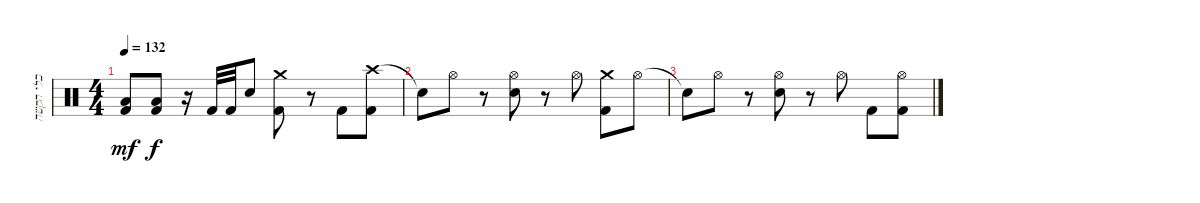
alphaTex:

\track ("כלי הקשה" "כלי הקשה") {instrument percussion}
\staff {score}
\articulation defaults
\ts (4 4)
\tempo 132
\clef neutral
\ks c
("Low Floor Tom (hit)" "Kick (hit) 2").8{dy mf volume 4} ("Low Floor Tom (hit)" "Kick (hit) 2").8{dy f} r.16 "Kick (hit) 2".32 "Kick (hit) 2".32 "Electric Snare (hit)".8 ("Crash medium (hit)" "Kick (hit) 2").8 r.8 "Kick (hit) 2".8 ("Crash high (hit)" "Kick (hit) 2").8 |
"Snare (hit)"{t}.8{volume 2} "Hi-Hat (open)".8 r.8 ("Hi-Hat (open)" "Electric Snare (hit)").8 r.8 "Hi-Hat (open)".8 ("Crash medium (hit)" "Kick (hit) 2").8 "Hi-Hat (open)".8 |
"Snare (hit)"{t}.8{volume 1} "Hi-Hat (open)".8 r.8 ("Hi-Hat (open)" "Electric Snare (hit)").8 r.8 "Hi-Hat (open)".8 "Kick (hit) 2".8 ("Hi-Hat (open)" "Kick (hit) 2").8
